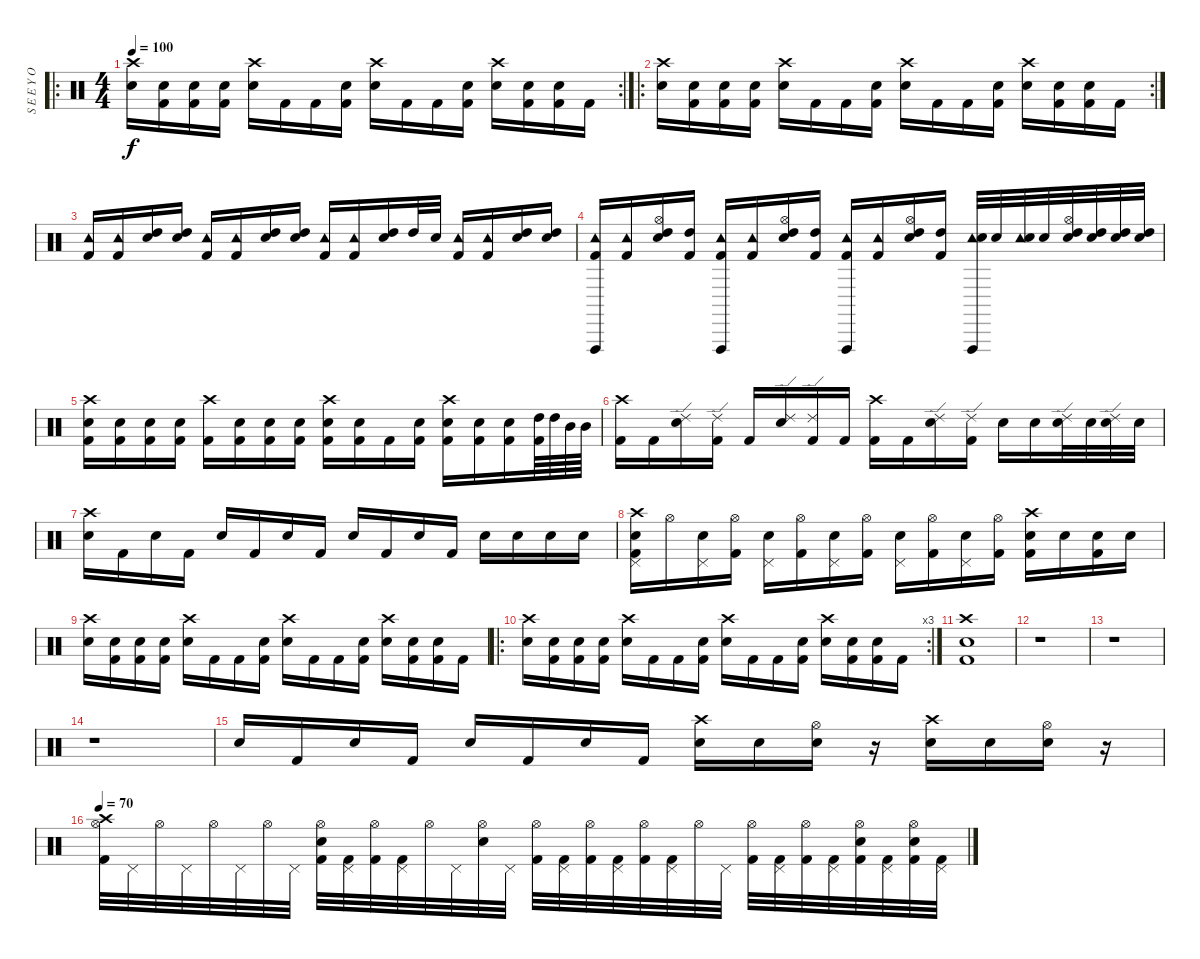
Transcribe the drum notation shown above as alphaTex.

\track ("S E E Y O U R " "S E E Y O ") {instrument percussion}
\staff {score}
\articulation defaults
\ro
\rc 2
\ts (4 4)
\tempo 100
\clef neutral
\ks c
("Crash high (hit)" "Electric Snare (hit)").16{dy f} ("Electric Snare (hit)" "Kick (hit) 2").16 ("Electric Snare (hit)" "Kick (hit) 2").16 ("Electric Snare (hit)" "Kick (hit) 2").16 ("Crash high (hit)" "Electric Snare (hit)").16 "Kick (hit) 2".16 "Kick (hit) 2".16 ("Electric Snare (hit)" "Kick (hit) 2").16 ("Crash high (hit)" "Electric Snare (hit)").16 "Kick (hit) 2".16 "Kick (hit) 2".16 ("Electric Snare (hit)" "Kick (hit) 2").16 ("Crash high (hit)" "Electric Snare (hit)").16 ("Electric Snare (hit)" "Kick (hit) 2").16 ("Electric Snare (hit)" "Kick (hit) 2").16 "Kick (hit) 2".16 |
\ro
\rc 2
("Crash high (hit)" "Electric Snare (hit)").16 ("Electric Snare (hit)" "Kick (hit) 2").16 ("Electric Snare (hit)" "Kick (hit) 2").16 ("Electric Snare (hit)" "Kick (hit) 2").16 ("Crash high (hit)" "Electric Snare (hit)").16 "Kick (hit) 2".16 "Kick (hit) 2".16 ("Electric Snare (hit)" "Kick (hit) 2").16 ("Crash high (hit)" "Electric Snare (hit)").16 "Kick (hit) 2".16 "Kick (hit) 2".16 ("Electric Snare (hit)" "Kick (hit) 2").16 ("Crash high (hit)" "Electric Snare (hit)").16 ("Electric Snare (hit)" "Kick (hit) 2").16 ("Electric Snare (hit)" "Kick (hit) 2").16 "Kick (hit) 2".16 |
("Tambourine (hit)" "Kick (hit) 2").16 ("Tambourine (hit)" "Kick (hit) 2").16 ("High Tom (hit)" "Electric Snare (hit)").16 ("High Tom (hit)" "Electric Snare (hit)").16 ("Tambourine (hit)" "Kick (hit) 2").16 ("Tambourine (hit)" "Kick (hit) 2").16 ("High Tom (hit)" "Electric Snare (hit)").16 ("High Tom (hit)" "Electric Snare (hit)").16 ("Tambourine (hit)" "Kick (hit) 2").16 ("Tambourine (hit)" "Kick (hit) 2").16 ("High Tom (hit)" "Electric Snare (hit)").16 "High Tom (hit)".32 "Electric Snare (hit)".32 ("Tambourine (hit)" "Kick (hit) 2").16 ("Tambourine (hit)" "Kick (hit) 2").16 ("High Tom (hit)" "Electric Snare (hit)").16 ("High Tom (hit)" "Electric Snare (hit)").16 |
("Tambourine (hit)" "Vibraslap (hit)" "Kick (hit) 2").16 ("Tambourine (hit)" "Kick (hit) 2").16 ("Hi-Hat (open)" "Electric Snare (hit)" "High Tom (hit)").16 ("High Tom (hit)" "Kick (hit) 2").16 ("Tambourine (hit)" "Vibraslap (hit)" "Kick (hit) 2").16 ("Tambourine (hit)" "Kick (hit) 2").16 ("Hi-Hat (open)" "Electric Snare (hit)" "High Tom (hit)").16 ("High Tom (hit)" "Kick (hit) 2").16 ("Tambourine (hit)" "Vibraslap (hit)" "Kick (hit) 2").16 ("Tambourine (hit)" "Kick (hit) 2").16 ("Hi-Hat (open)" "Electric Snare (hit)" "High Tom (hit)").16 ("High Tom (hit)" "Kick (hit) 2").16 ("Tambourine (hit)" "Electric Snare (hit)" "Vibraslap (hit)").32 "Electric Snare (hit)".32 ("Tambourine (hit)" "Electric Snare (hit)").32 "Electric Snare (hit)".32 ("Hi-Hat (open)" "Electric Snare (hit)" "High Tom (hit)").32 ("Electric Snare (hit)" "High Tom (hit)").32 ("Electric Snare (hit)" "High Tom (hit)").32 ("Electric Snare (hit)" "High Tom (hit)").32 |
("Crash high (hit)" "Electric Snare (hit)" "Kick (hit) 2").16 ("Electric Snare (hit)" "Kick (hit) 2").16 ("Electric Snare (hit)" "Kick (hit) 2").16 ("Electric Snare (hit)" "Kick (hit) 2").16 ("Crash high (hit)" "Kick (hit) 2").16 ("Electric Snare (hit)" "Kick (hit) 2").16 ("Electric Snare (hit)" "Kick (hit) 2").16 ("Electric Snare (hit)" "Kick (hit) 2").16 ("Crash high (hit)" "Electric Snare (hit)" "Kick (hit) 2").16 ("Electric Snare (hit)" "Kick (hit) 2").16 "Kick (hit) 2".16 ("Electric Snare (hit)" "Kick (hit) 2").16 ("Crash high (hit)" "Electric Snare (hit)" "Kick (hit) 2").16 ("Electric Snare (hit)" "Kick (hit) 2").16 ("Electric Snare (hit)" "Kick (hit) 2").16 ("High Tom (hit)" "Kick (hit) 2").64 "High Tom (hit)".64 "Mid Tom (hit)".64 "Mid Tom (hit)".64 |
("Crash high (hit)" "Kick (hit) 2").16 "Kick (hit) 2".16 ("Ride (edge) 2" "Electric Snare (hit)").16 ("Ride (edge) 2" "Kick (hit) 2").16 "Kick (hit) 2".16 ("Ride (edge) 2" "Electric Snare (hit)").16 ("Ride (edge) 2" "Kick (hit) 2").16 "Kick (hit) 2".16 ("Crash high (hit)" "Kick (hit) 2").16 "Kick (hit) 2".16 ("Ride (edge) 2" "Electric Snare (hit)").16 ("Ride (edge) 2" "Kick (hit) 2").16 "Electric Snare (hit)".16 "Electric Snare (hit)".16 ("Ride (edge) 2" "Electric Snare (hit)").32 "Electric Snare (hit)".32 ("Ride (edge) 2" "Electric Snare (hit)").32 "Electric Snare (hit)".32 |
("Crash high (hit)" "Electric Snare (hit)").16 "Kick (hit) 2".16 "Electric Snare (hit)".16 "Kick (hit) 2".16 "Electric Snare (hit)".16 "Kick (hit) 2".16 "Electric Snare (hit)".16 "Kick (hit) 2".16 "Electric Snare (hit)".16 "Kick (hit) 2".16 "Electric Snare (hit)".16 "Kick (hit) 2".16 "Electric Snare (hit)".16 "Electric Snare (hit)".16 "Electric Snare (hit)".16 "Electric Snare (hit)".16 |
("Crash high (hit)" "Pedal Hi-Hat (hit)" "Electric Snare (hit)" "Kick (hit) 2").16 "Hi-Hat (open)".16 ("Pedal Hi-Hat (hit)" "Electric Snare (hit)").16 ("Hi-Hat (open)" "Kick (hit) 2").16 ("Pedal Hi-Hat (hit)" "Electric Snare (hit)").16 ("Hi-Hat (open)" "Kick (hit) 2").16 ("Pedal Hi-Hat (hit)" "Electric Snare (hit)").16 ("Hi-Hat (open)" "Kick (hit) 2").16 ("Pedal Hi-Hat (hit)" "Electric Snare (hit)").16 ("Hi-Hat (open)" "Kick (hit) 2").16 ("Pedal Hi-Hat (hit)" "Electric Snare (hit)").16 ("Hi-Hat (open)" "Kick (hit) 2").16 ("Crash high (hit)" "Electric Snare (hit)" "Kick (hit) 2").16 "Electric Snare (hit)".16 ("Electric Snare (hit)" "Kick (hit) 2").16 "Electric Snare (hit)".16 |
("Crash high (hit)" "Electric Snare (hit)").16 ("Electric Snare (hit)" "Kick (hit) 2").16 ("Electric Snare (hit)" "Kick (hit) 2").16 ("Electric Snare (hit)" "Kick (hit) 2").16 ("Crash high (hit)" "Electric Snare (hit)").16 "Kick (hit) 2".16 "Kick (hit) 2".16 ("Electric Snare (hit)" "Kick (hit) 2").16 ("Crash high (hit)" "Electric Snare (hit)").16 "Kick (hit) 2".16 "Kick (hit) 2".16 ("Electric Snare (hit)" "Kick (hit) 2").16 ("Crash high (hit)" "Electric Snare (hit)").16 ("Electric Snare (hit)" "Kick (hit) 2").16 ("Electric Snare (hit)" "Kick (hit) 2").16 "Kick (hit) 2".16 |
\ro
\rc 3
("Crash high (hit)" "Electric Snare (hit)").16 ("Electric Snare (hit)" "Kick (hit) 2").16 ("Electric Snare (hit)" "Kick (hit) 2").16 ("Electric Snare (hit)" "Kick (hit) 2").16 ("Crash high (hit)" "Electric Snare (hit)").16 "Kick (hit) 2".16 "Kick (hit) 2".16 ("Electric Snare (hit)" "Kick (hit) 2").16 ("Crash high (hit)" "Electric Snare (hit)").16 "Kick (hit) 2".16 "Kick (hit) 2".16 ("Electric Snare (hit)" "Kick (hit) 2").16 ("Crash high (hit)" "Electric Snare (hit)").16 ("Electric Snare (hit)" "Kick (hit) 2").16 ("Electric Snare (hit)" "Kick (hit) 2").16 "Kick (hit) 2".16 |
("Crash high (hit)" "Electric Snare (hit)" "Kick (hit) 2").1 |
r.1 |
r.1 |
r.1 |
"Electric Snare (hit)".16 "Kick (hit) 2".16 "Electric Snare (hit)".16 "Kick (hit) 2".16 "Electric Snare (hit)".16 "Kick (hit) 2".16 "Electric Snare (hit)".16 "Kick (hit) 2".16 ("Crash high (hit)" "Electric Snare (hit)").16 "Electric Snare (hit)".16 ("Hi-Hat (open)" "Electric Snare (hit)").16 r.16 ("Crash high (hit)" "Electric Snare (hit)").16 "Electric Snare (hit)".16 ("Hi-Hat (open)" "Electric Snare (hit)").16 r.16 |
\tempo 70
("Crash high (hit)" "Hi-Hat (open)" "Kick (hit) 2").32 "Pedal Hi-Hat (hit)".32 "Hi-Hat (open)".32 "Pedal Hi-Hat (hit)".32 "Hi-Hat (open)".32 "Pedal Hi-Hat (hit)".32 "Hi-Hat (open)".32 "Pedal Hi-Hat (hit)".32 ("Hi-Hat (open)" "Electric Snare (hit)" "Kick (hit) 2").32 ("Pedal Hi-Hat (hit)" "Kick (hit) 2").32 ("Hi-Hat (open)" "Kick (hit) 2").32 ("Pedal Hi-Hat (hit)" "Kick (hit) 2").32 "Hi-Hat (open)".32 "Pedal Hi-Hat (hit)".32 ("Hi-Hat (open)" "Electric Snare (hit)").32 "Pedal Hi-Hat (hit)".32 ("Hi-Hat (open)" "Kick (hit) 2").32 ("Pedal Hi-Hat (hit)" "Kick (hit) 2").32 ("Hi-Hat (open)" "Kick (hit) 2").32 ("Pedal Hi-Hat (hit)" "Kick (hit) 2").32 ("Hi-Hat (open)" "Kick (hit) 2").32 ("Pedal Hi-Hat (hit)" "Kick (hit) 2").32 "Hi-Hat (open)".32 "Pedal Hi-Hat (hit)".32 ("Hi-Hat (open)" "Kick (hit) 2").32 ("Pedal Hi-Hat (hit)" "Kick (hit) 2").32 ("Hi-Hat (open)" "Kick (hit) 2").32 ("Pedal Hi-Hat (hit)" "Kick (hit) 2").32 ("Hi-Hat (open)" "Electric Snare (hit)" "Kick (hit) 2").32 ("Pedal Hi-Hat (hit)" "Kick (hit) 2").32 ("Hi-Hat (open)" "Electric Snare (hit)" "Kick (hit) 2").32 ("Pedal Hi-Hat (hit)" "Kick (hit) 2").32
